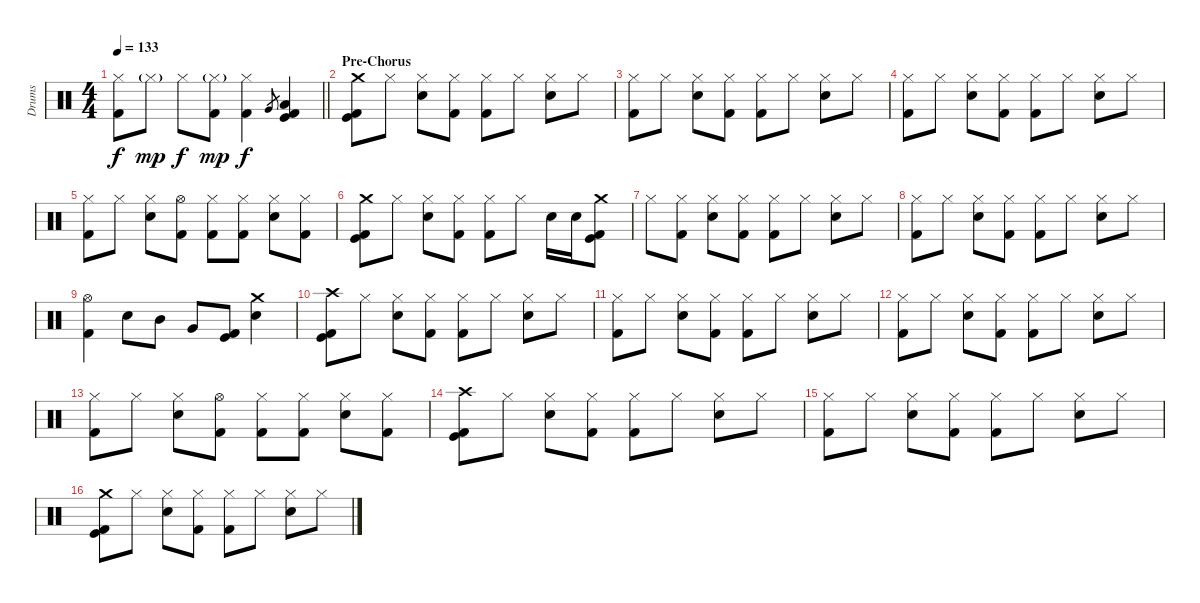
\track ("Drums" "Drums") {instrument percussion}
\staff {score}
\articulation defaults
\ts (4 4)
\tempo 133
\clef neutral
\barLineRight lightlight
\ks c
("Hi-Hat (closed)" "Kick (hit) 2").8{dy f} "Hi-Hat (closed)"{g}.8{dy mp} "Hi-Hat (closed)".8{dy f} ("Hi-Hat (closed)"{g} "Kick (hit) 2").8{dy mp} ("Hi-Hat (closed)" "Kick (hit) 2").4{dy f} "Very Low Tom (hit)".8{gr} ("Low Floor Tom (hit)" "Kick (hit)" "Kick (hit) 2").4{volume 10} |
\section ("" "Pre-Chorus")
("Crash medium (hit)" "Kick (hit) 2" "Kick (hit)").8 "Hi-Hat (closed)".8 ("Hi-Hat (closed)" "Electric Snare (hit)").8 ("Hi-Hat (closed)" "Kick (hit) 2").8 ("Hi-Hat (closed)" "Kick (hit) 2").8 "Hi-Hat (closed)".8 ("Hi-Hat (closed)" "Electric Snare (hit)").8 "Hi-Hat (closed)".8 |
("Hi-Hat (closed)" "Kick (hit) 2").8 "Hi-Hat (closed)".8 ("Hi-Hat (closed)" "Electric Snare (hit)").8 ("Hi-Hat (closed)" "Kick (hit) 2").8 ("Hi-Hat (closed)" "Kick (hit) 2").8 "Hi-Hat (closed)".8 ("Hi-Hat (closed)" "Electric Snare (hit)").8 "Hi-Hat (closed)".8 |
("Hi-Hat (closed)" "Kick (hit) 2").8 "Hi-Hat (closed)".8 ("Hi-Hat (closed)" "Electric Snare (hit)").8 ("Hi-Hat (closed)" "Kick (hit) 2").8 ("Hi-Hat (closed)" "Kick (hit) 2").8 "Hi-Hat (closed)".8 ("Hi-Hat (closed)" "Electric Snare (hit)").8 "Hi-Hat (closed)".8 |
("Hi-Hat (closed)" "Kick (hit) 2").8 "Hi-Hat (closed)".8 ("Hi-Hat (closed)" "Electric Snare (hit)").8 ("Hi-Hat (open)" "Kick (hit) 2").8 ("Hi-Hat (closed)" "Kick (hit) 2").8 ("Hi-Hat (closed)" "Kick (hit) 2").8 ("Hi-Hat (closed)" "Electric Snare (hit)").8 ("Hi-Hat (closed)" "Kick (hit) 2").8 |
("Crash medium (hit)" "Kick (hit) 2" "Kick (hit)").8 "Hi-Hat (closed)".8 ("Hi-Hat (closed)" "Electric Snare (hit)").8 ("Hi-Hat (closed)" "Kick (hit) 2").8 ("Hi-Hat (closed)" "Kick (hit) 2").8 "Hi-Hat (closed)".8 "Electric Snare (hit)".16 "Electric Snare (hit)".16 ("Crash medium (hit)" "Kick (hit) 2" "Kick (hit)").8 |
"Hi-Hat (closed)".8 ("Hi-Hat (closed)" "Kick (hit) 2").8 ("Hi-Hat (closed)" "Electric Snare (hit)").8 ("Hi-Hat (closed)" "Kick (hit) 2").8 ("Hi-Hat (closed)" "Kick (hit) 2").8 "Hi-Hat (closed)".8 ("Hi-Hat (closed)" "Electric Snare (hit)").8 "Hi-Hat (closed)".8 |
("Hi-Hat (closed)" "Kick (hit) 2").8 "Hi-Hat (closed)".8 ("Hi-Hat (closed)" "Electric Snare (hit)").8 ("Hi-Hat (closed)" "Kick (hit) 2").8 ("Hi-Hat (closed)" "Kick (hit) 2").8 "Hi-Hat (closed)".8 ("Hi-Hat (closed)" "Electric Snare (hit)").8 "Hi-Hat (closed)".8 |
("Hi-Hat (open)" "Kick (hit) 2").4 "Electric Snare (hit)".8 "Mid Tom (hit)".8 "Very Low Tom (hit)".8 ("Kick (hit) 2" "Kick (hit)").8 ("Crash medium (hit)" "Electric Snare (hit)").4 |
("Crash high (hit)" "Kick (hit) 2" "Kick (hit)").8 "Hi-Hat (closed)".8 ("Hi-Hat (closed)" "Electric Snare (hit)").8 ("Hi-Hat (closed)" "Kick (hit) 2").8 ("Hi-Hat (closed)" "Kick (hit) 2").8 "Hi-Hat (closed)".8 ("Hi-Hat (closed)" "Electric Snare (hit)").8 "Hi-Hat (closed)".8 |
("Hi-Hat (closed)" "Kick (hit) 2").8 "Hi-Hat (closed)".8 ("Hi-Hat (closed)" "Electric Snare (hit)").8 ("Hi-Hat (closed)" "Kick (hit) 2").8 ("Hi-Hat (closed)" "Kick (hit) 2").8 "Hi-Hat (closed)".8 ("Hi-Hat (closed)" "Electric Snare (hit)").8 "Hi-Hat (closed)".8 |
("Hi-Hat (closed)" "Kick (hit) 2").8 "Hi-Hat (closed)".8 ("Hi-Hat (closed)" "Electric Snare (hit)").8 ("Hi-Hat (closed)" "Kick (hit) 2").8 ("Hi-Hat (closed)" "Kick (hit) 2").8 "Hi-Hat (closed)".8 ("Hi-Hat (closed)" "Electric Snare (hit)").8 "Hi-Hat (closed)".8 |
("Hi-Hat (closed)" "Kick (hit) 2").8 "Hi-Hat (closed)".8 ("Hi-Hat (closed)" "Electric Snare (hit)").8 ("Hi-Hat (open)" "Kick (hit) 2").8 ("Hi-Hat (closed)" "Kick (hit) 2").8 ("Hi-Hat (closed)" "Kick (hit) 2").8 ("Hi-Hat (closed)" "Electric Snare (hit)").8 ("Hi-Hat (closed)" "Kick (hit) 2").8 |
("Crash high (hit)" "Kick (hit) 2" "Kick (hit)").8 "Hi-Hat (closed)".8 ("Hi-Hat (closed)" "Electric Snare (hit)").8 ("Hi-Hat (closed)" "Kick (hit) 2").8 ("Hi-Hat (closed)" "Kick (hit) 2").8 "Hi-Hat (closed)".8 ("Hi-Hat (closed)" "Electric Snare (hit)").8 "Hi-Hat (closed)".8 |
("Hi-Hat (closed)" "Kick (hit) 2").8 "Hi-Hat (closed)".8 ("Hi-Hat (closed)" "Electric Snare (hit)").8 ("Hi-Hat (closed)" "Kick (hit) 2").8 ("Hi-Hat (closed)" "Kick (hit) 2").8 "Hi-Hat (closed)".8 ("Hi-Hat (closed)" "Electric Snare (hit)").8 "Hi-Hat (closed)".8 |
("Crash medium (hit)" "Kick (hit) 2" "Kick (hit)").8 "Hi-Hat (closed)".8 ("Hi-Hat (closed)" "Electric Snare (hit)").8 ("Hi-Hat (closed)" "Kick (hit) 2").8 ("Hi-Hat (closed)" "Kick (hit) 2").8 "Hi-Hat (closed)".8 ("Hi-Hat (closed)" "Electric Snare (hit)").8 "Hi-Hat (closed)".8
